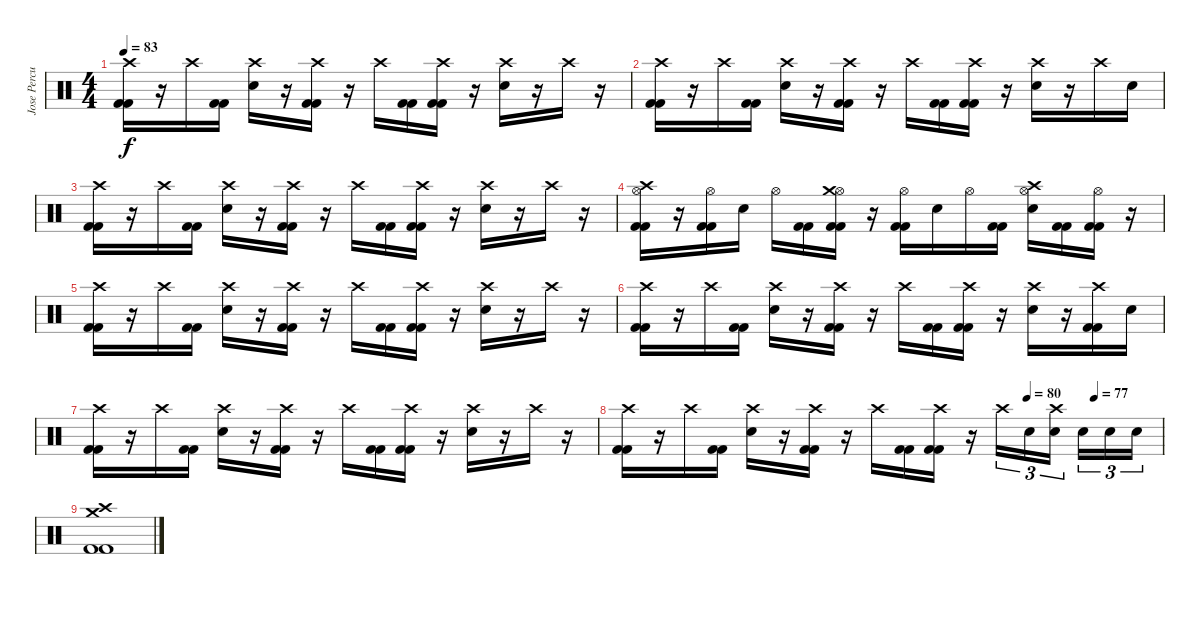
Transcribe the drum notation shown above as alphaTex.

\track ("Jose Percusilas" "Jose Percu") {instrument percussion}
\staff {score}
\articulation defaults
\ts (4 4)
\tempo 83
\clef neutral
\ks c
("Crash high (hit)" "Kick (hit) 2" "Kick (hit) 2").16{dy f} r.16 "Crash high (hit)".16 ("Kick (hit) 2" "Kick (hit) 2").16 ("Crash high (hit)" "Electric Snare (hit)").16 r.16 ("Crash high (hit)" "Kick (hit) 2" "Kick (hit) 2").16 r.16 "Crash high (hit)".16 ("Kick (hit) 2" "Kick (hit) 2").16 ("Crash high (hit)" "Kick (hit) 2" "Kick (hit) 2").16 r.16 ("Crash high (hit)" "Electric Snare (hit)").16 r.16 "Crash high (hit)".16 r.16 |
("Crash high (hit)" "Kick (hit) 2" "Kick (hit) 2").16 r.16 "Crash high (hit)".16 ("Kick (hit) 2" "Kick (hit) 2").16 ("Crash high (hit)" "Electric Snare (hit)").16 r.16 ("Crash high (hit)" "Kick (hit) 2" "Kick (hit) 2").16 r.16 "Crash high (hit)".16 ("Kick (hit) 2" "Kick (hit) 2").16 ("Crash high (hit)" "Kick (hit) 2" "Kick (hit) 2").16 r.16 ("Crash high (hit)" "Electric Snare (hit)").16 r.16 "Crash high (hit)".16 "Electric Snare (hit)".16 |
("Crash high (hit)" "Kick (hit) 2" "Kick (hit) 2").16 r.16 "Crash high (hit)".16 ("Kick (hit) 2" "Kick (hit) 2").16 ("Crash high (hit)" "Electric Snare (hit)").16 r.16 ("Crash high (hit)" "Kick (hit) 2" "Kick (hit) 2").16 r.16 "Crash high (hit)".16 ("Kick (hit) 2" "Kick (hit) 2").16 ("Crash high (hit)" "Kick (hit) 2" "Kick (hit) 2").16 r.16 ("Crash high (hit)" "Electric Snare (hit)").16 r.16 "Crash high (hit)".16 r.16 |
("Hi-Hat (open)" "Crash high (hit)" "Kick (hit) 2" "Kick (hit) 2").16 r.16 ("Hi-Hat (open)" "Kick (hit) 2" "Kick (hit) 2").16 "Electric Snare (hit)".16 "Hi-Hat (open)".16 ("Kick (hit) 2" "Kick (hit) 2").16 ("Hi-Hat (open)" "Crash medium (hit)" "Kick (hit) 2" "Kick (hit) 2").16 r.16 ("Hi-Hat (open)" "Kick (hit) 2" "Kick (hit) 2").16 "Electric Snare (hit)".16 "Hi-Hat (open)".16 ("Kick (hit) 2" "Kick (hit) 2").16 ("Hi-Hat (open)" "Crash high (hit)" "Electric Snare (hit)").16 ("Kick (hit) 2" "Kick (hit) 2").16 ("Hi-Hat (open)" "Kick (hit) 2" "Kick (hit) 2").16 r.16 |
("Crash high (hit)" "Kick (hit) 2" "Kick (hit) 2").16 r.16 "Crash high (hit)".16 ("Kick (hit) 2" "Kick (hit) 2").16 ("Crash high (hit)" "Electric Snare (hit)").16 r.16 ("Crash high (hit)" "Kick (hit) 2" "Kick (hit) 2").16 r.16 "Crash high (hit)".16 ("Kick (hit) 2" "Kick (hit) 2").16 ("Crash high (hit)" "Kick (hit) 2" "Kick (hit) 2").16 r.16 ("Crash high (hit)" "Electric Snare (hit)").16 r.16 "Crash high (hit)".16 r.16 |
("Crash high (hit)" "Kick (hit) 2" "Kick (hit) 2").16 r.16 "Crash high (hit)".16 ("Kick (hit) 2" "Kick (hit) 2").16 ("Crash high (hit)" "Electric Snare (hit)").16 r.16 ("Crash high (hit)" "Kick (hit) 2" "Kick (hit) 2").16 r.16 "Crash high (hit)".16 ("Kick (hit) 2" "Kick (hit) 2").16 ("Crash high (hit)" "Kick (hit) 2" "Kick (hit) 2").16 r.16 ("Crash high (hit)" "Electric Snare (hit)").16 r.16 ("Crash high (hit)" "Kick (hit) 2" "Kick (hit) 2").16 "Electric Snare (hit)".16 |
("Crash high (hit)" "Kick (hit) 2" "Kick (hit) 2").16 r.16 "Crash high (hit)".16 ("Kick (hit) 2" "Kick (hit) 2").16 ("Crash high (hit)" "Electric Snare (hit)").16 r.16 ("Crash high (hit)" "Kick (hit) 2" "Kick (hit) 2").16 r.16 "Crash high (hit)".16 ("Kick (hit) 2" "Kick (hit) 2").16 ("Crash high (hit)" "Kick (hit) 2" "Kick (hit) 2").16 r.16 ("Crash high (hit)" "Electric Snare (hit)").16 r.16 "Crash high (hit)".16 r.16 |
\tempo (80 0.75)
\tempo (77 0.875)
("Crash high (hit)" "Kick (hit) 2" "Kick (hit) 2").16 r.16 "Crash high (hit)".16 ("Kick (hit) 2" "Kick (hit) 2").16 ("Crash high (hit)" "Electric Snare (hit)").16 r.16 ("Crash high (hit)" "Kick (hit) 2" "Kick (hit) 2").16 r.16 "Crash high (hit)".16 ("Kick (hit) 2" "Kick (hit) 2").16 ("Crash high (hit)" "Kick (hit) 2" "Kick (hit) 2").16 r.16 "Crash high (hit)".16{tu (3 2)} "Electric Snare (hit)".16{tu (3 2)} ("Crash high (hit)" "Electric Snare (hit)").16{tu (3 2)} "Electric Snare (hit)".16{tu (3 2)} "Electric Snare (hit)".16{tu (3 2)} "Electric Snare (hit)".16{tu (3 2)} |
("Crash high (hit)" "Crash medium (hit)" "Kick (hit) 2" "Kick (hit) 2").1
